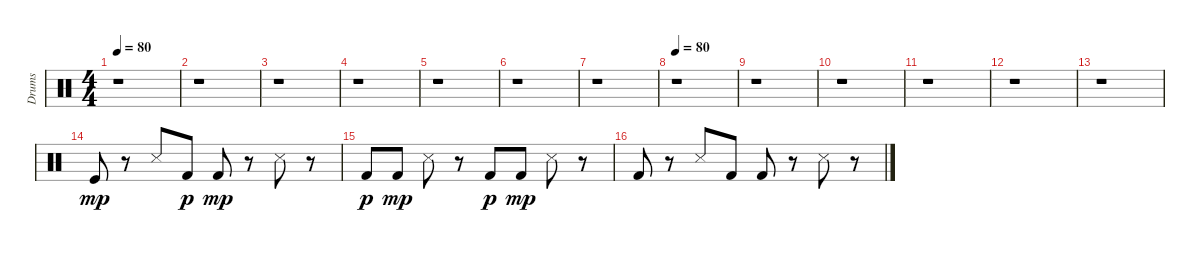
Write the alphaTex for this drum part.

\track ("Drums" "Drums") {instrument percussion}
\staff {score}
\articulation defaults
\ts (4 4)
\tempo 80
\clef neutral
\ks c
r.1{dy mp} |
r.1 |
r.1 |
r.1 |
r.1 |
r.1 |
r.1 |
\tempo 80
r.1 |
r.1 |
r.1 |
r.1 |
r.1 |
r.1 |
"Kick (hit)".8 r.8 "Snare (side stick) 3".8 "Kick (hit) 2".8{dy p} "Kick (hit) 2".8{dy mp} r.8 "Snare (side stick) 3".8 r.8 |
"Kick (hit) 2".8{dy p} "Kick (hit) 2".8{dy mp} "Snare (side stick) 3".8 r.8 "Kick (hit) 2".8{dy p} "Kick (hit) 2".8{dy mp} "Snare (side stick) 3".8 r.8 |
"Kick (hit) 2".8 r.8 "Snare (side stick) 3".8 "Kick (hit) 2".8 "Kick (hit) 2".8 r.8 "Snare (side stick) 3".8 r.8
